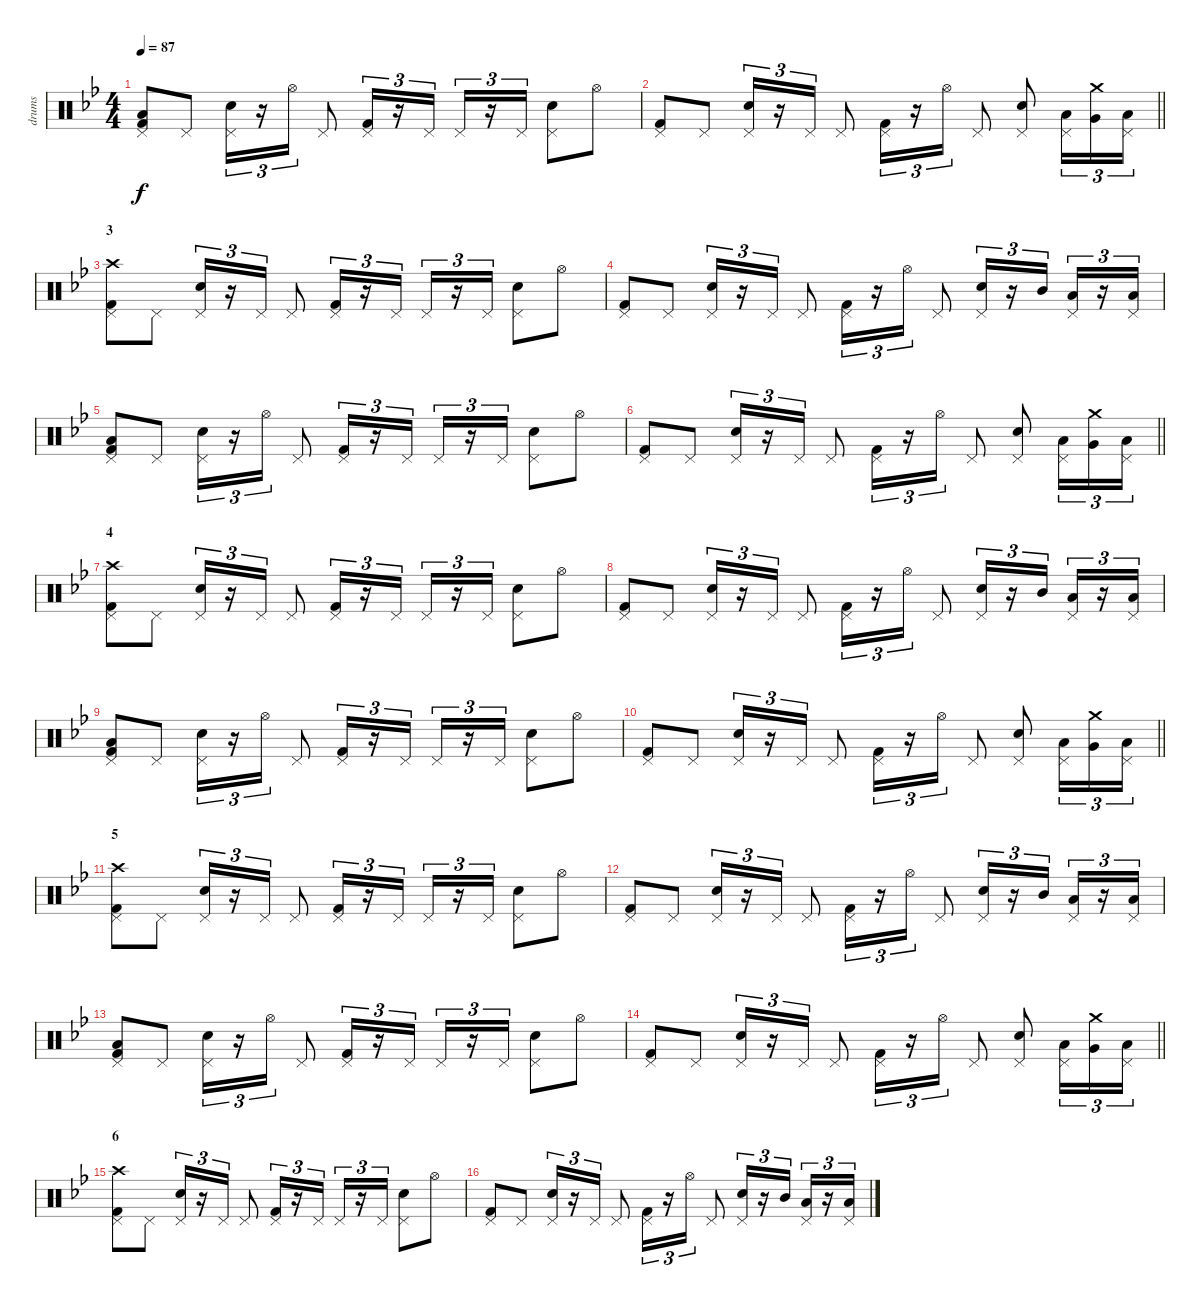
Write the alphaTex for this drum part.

\track ("drums" "drums") {instrument percussion}
\staff {score}
\articulation defaults
\ts (4 4)
\tempo 87
\clef neutral
\ks gminor
("Pedal Hi-Hat (hit)" "Low Floor Tom (hit)" "Kick (hit) 2").8{dy f} "Pedal Hi-Hat (hit)".8 ("Pedal Hi-Hat (hit)" "Electric Snare (hit)").16{tu (3 2)} r.16{tu (3 2)} "Hi-Hat (open)".16{tu (3 2)} "Pedal Hi-Hat (hit)".8 ("Pedal Hi-Hat (hit)" "Kick (hit) 2").16{tu (3 2)} r.16{tu (3 2)} "Pedal Hi-Hat (hit)".16{tu (3 2)} "Pedal Hi-Hat (hit)".16{tu (3 2)} r.16{tu (3 2)} "Pedal Hi-Hat (hit)".16{tu (3 2)} ("Pedal Hi-Hat (hit)" "Electric Snare (hit)").8 "Hi-Hat (open)".8 |
\barLineRight lightlight
("Pedal Hi-Hat (hit)" "Kick (hit) 2").8 "Pedal Hi-Hat (hit)".8 ("Pedal Hi-Hat (hit)" "Electric Snare (hit)").16{tu (3 2)} r.16{tu (3 2)} "Pedal Hi-Hat (hit)".16{tu (3 2)} "Pedal Hi-Hat (hit)".8 ("Pedal Hi-Hat (hit)" "Kick (hit) 2").16{tu (3 2)} r.16{tu (3 2)} "Hi-Hat (open)".16{tu (3 2)} "Pedal Hi-Hat (hit)".8 ("Pedal Hi-Hat (hit)" "Electric Snare (hit)").8 ("Pedal Hi-Hat (hit)" "Low Tom (hit)").16{tu (3 2)} ("Crash medium (hit)" "Very Low Tom (hit)").16{tu (3 2)} ("Pedal Hi-Hat (hit)" "Low Floor Tom (hit)").16{tu (3 2)} |
\section ("" "3")
("Crash high (hit)" "Pedal Hi-Hat (hit)" "Kick (hit) 2").8 "Pedal Hi-Hat (hit)".8 ("Pedal Hi-Hat (hit)" "Electric Snare (hit)").16{tu (3 2)} r.16{tu (3 2)} "Pedal Hi-Hat (hit)".16{tu (3 2)} "Pedal Hi-Hat (hit)".8 ("Pedal Hi-Hat (hit)" "Kick (hit) 2").16{tu (3 2)} r.16{tu (3 2)} "Pedal Hi-Hat (hit)".16{tu (3 2)} "Pedal Hi-Hat (hit)".16{tu (3 2)} r.16{tu (3 2)} "Pedal Hi-Hat (hit)".16{tu (3 2)} ("Pedal Hi-Hat (hit)" "Electric Snare (hit)").8 "Hi-Hat (open)".8 |
("Pedal Hi-Hat (hit)" "Kick (hit) 2").8 "Pedal Hi-Hat (hit)".8 ("Pedal Hi-Hat (hit)" "Electric Snare (hit)").16{tu (3 2)} r.16{tu (3 2)} "Pedal Hi-Hat (hit)".16{tu (3 2)} "Pedal Hi-Hat (hit)".8 ("Pedal Hi-Hat (hit)" "Kick (hit) 2").16{tu (3 2)} r.16{tu (3 2)} "Hi-Hat (open)".16{tu (3 2)} "Pedal Hi-Hat (hit)".8 ("Pedal Hi-Hat (hit)" "Electric Snare (hit)").16{tu (3 2)} r.16{tu (3 2)} "Mid Tom (hit)".16{tu (3 2)} ("Pedal Hi-Hat (hit)" "Low Tom (hit)").16{tu (3 2)} r.16{tu (3 2)} ("Pedal Hi-Hat (hit)" "Low Floor Tom (hit)").16{tu (3 2)} |
("Pedal Hi-Hat (hit)" "Low Floor Tom (hit)" "Kick (hit) 2").8 "Pedal Hi-Hat (hit)".8 ("Pedal Hi-Hat (hit)" "Electric Snare (hit)").16{tu (3 2)} r.16{tu (3 2)} "Hi-Hat (open)".16{tu (3 2)} "Pedal Hi-Hat (hit)".8 ("Pedal Hi-Hat (hit)" "Kick (hit) 2").16{tu (3 2)} r.16{tu (3 2)} "Pedal Hi-Hat (hit)".16{tu (3 2)} "Pedal Hi-Hat (hit)".16{tu (3 2)} r.16{tu (3 2)} "Pedal Hi-Hat (hit)".16{tu (3 2)} ("Pedal Hi-Hat (hit)" "Electric Snare (hit)").8 "Hi-Hat (open)".8 |
\barLineRight lightlight
("Pedal Hi-Hat (hit)" "Kick (hit) 2").8 "Pedal Hi-Hat (hit)".8 ("Pedal Hi-Hat (hit)" "Electric Snare (hit)").16{tu (3 2)} r.16{tu (3 2)} "Pedal Hi-Hat (hit)".16{tu (3 2)} "Pedal Hi-Hat (hit)".8 ("Pedal Hi-Hat (hit)" "Kick (hit) 2").16{tu (3 2)} r.16{tu (3 2)} "Hi-Hat (open)".16{tu (3 2)} "Pedal Hi-Hat (hit)".8 ("Pedal Hi-Hat (hit)" "Electric Snare (hit)").8 ("Pedal Hi-Hat (hit)" "Low Tom (hit)").16{tu (3 2)} ("Crash medium (hit)" "Very Low Tom (hit)").16{tu (3 2)} ("Pedal Hi-Hat (hit)" "Low Floor Tom (hit)").16{tu (3 2)} |
\section ("" "4")
("Crash high (hit)" "Pedal Hi-Hat (hit)" "Kick (hit) 2").8 "Pedal Hi-Hat (hit)".8 ("Pedal Hi-Hat (hit)" "Electric Snare (hit)").16{tu (3 2)} r.16{tu (3 2)} "Pedal Hi-Hat (hit)".16{tu (3 2)} "Pedal Hi-Hat (hit)".8 ("Pedal Hi-Hat (hit)" "Kick (hit) 2").16{tu (3 2)} r.16{tu (3 2)} "Pedal Hi-Hat (hit)".16{tu (3 2)} "Pedal Hi-Hat (hit)".16{tu (3 2)} r.16{tu (3 2)} "Pedal Hi-Hat (hit)".16{tu (3 2)} ("Pedal Hi-Hat (hit)" "Electric Snare (hit)").8 "Hi-Hat (open)".8 |
("Pedal Hi-Hat (hit)" "Kick (hit) 2").8 "Pedal Hi-Hat (hit)".8 ("Pedal Hi-Hat (hit)" "Electric Snare (hit)").16{tu (3 2)} r.16{tu (3 2)} "Pedal Hi-Hat (hit)".16{tu (3 2)} "Pedal Hi-Hat (hit)".8 ("Pedal Hi-Hat (hit)" "Kick (hit) 2").16{tu (3 2)} r.16{tu (3 2)} "Hi-Hat (open)".16{tu (3 2)} "Pedal Hi-Hat (hit)".8 ("Pedal Hi-Hat (hit)" "Electric Snare (hit)").16{tu (3 2)} r.16{tu (3 2)} "Mid Tom (hit)".16{tu (3 2)} ("Pedal Hi-Hat (hit)" "Low Tom (hit)").16{tu (3 2)} r.16{tu (3 2)} ("Pedal Hi-Hat (hit)" "Low Floor Tom (hit)").16{tu (3 2)} |
("Pedal Hi-Hat (hit)" "Low Floor Tom (hit)" "Kick (hit) 2").8 "Pedal Hi-Hat (hit)".8 ("Pedal Hi-Hat (hit)" "Electric Snare (hit)").16{tu (3 2)} r.16{tu (3 2)} "Hi-Hat (open)".16{tu (3 2)} "Pedal Hi-Hat (hit)".8 ("Pedal Hi-Hat (hit)" "Kick (hit) 2").16{tu (3 2)} r.16{tu (3 2)} "Pedal Hi-Hat (hit)".16{tu (3 2)} "Pedal Hi-Hat (hit)".16{tu (3 2)} r.16{tu (3 2)} "Pedal Hi-Hat (hit)".16{tu (3 2)} ("Pedal Hi-Hat (hit)" "Electric Snare (hit)").8 "Hi-Hat (open)".8 |
\barLineRight lightlight
("Pedal Hi-Hat (hit)" "Kick (hit) 2").8 "Pedal Hi-Hat (hit)".8 ("Pedal Hi-Hat (hit)" "Electric Snare (hit)").16{tu (3 2)} r.16{tu (3 2)} "Pedal Hi-Hat (hit)".16{tu (3 2)} "Pedal Hi-Hat (hit)".8 ("Pedal Hi-Hat (hit)" "Kick (hit) 2").16{tu (3 2)} r.16{tu (3 2)} "Hi-Hat (open)".16{tu (3 2)} "Pedal Hi-Hat (hit)".8 ("Pedal Hi-Hat (hit)" "Electric Snare (hit)").8 ("Pedal Hi-Hat (hit)" "Low Tom (hit)").16{tu (3 2)} ("Crash medium (hit)" "Very Low Tom (hit)").16{tu (3 2)} ("Pedal Hi-Hat (hit)" "Low Floor Tom (hit)").16{tu (3 2)} |
\section ("" "5")
("Crash high (hit)" "Pedal Hi-Hat (hit)" "Kick (hit) 2").8 "Pedal Hi-Hat (hit)".8 ("Pedal Hi-Hat (hit)" "Electric Snare (hit)").16{tu (3 2)} r.16{tu (3 2)} "Pedal Hi-Hat (hit)".16{tu (3 2)} "Pedal Hi-Hat (hit)".8 ("Pedal Hi-Hat (hit)" "Kick (hit) 2").16{tu (3 2)} r.16{tu (3 2)} "Pedal Hi-Hat (hit)".16{tu (3 2)} "Pedal Hi-Hat (hit)".16{tu (3 2)} r.16{tu (3 2)} "Pedal Hi-Hat (hit)".16{tu (3 2)} ("Pedal Hi-Hat (hit)" "Electric Snare (hit)").8 "Hi-Hat (open)".8 |
("Pedal Hi-Hat (hit)" "Kick (hit) 2").8 "Pedal Hi-Hat (hit)".8 ("Pedal Hi-Hat (hit)" "Electric Snare (hit)").16{tu (3 2)} r.16{tu (3 2)} "Pedal Hi-Hat (hit)".16{tu (3 2)} "Pedal Hi-Hat (hit)".8 ("Pedal Hi-Hat (hit)" "Kick (hit) 2").16{tu (3 2)} r.16{tu (3 2)} "Hi-Hat (open)".16{tu (3 2)} "Pedal Hi-Hat (hit)".8 ("Pedal Hi-Hat (hit)" "Electric Snare (hit)").16{tu (3 2)} r.16{tu (3 2)} "Mid Tom (hit)".16{tu (3 2)} ("Pedal Hi-Hat (hit)" "Low Tom (hit)").16{tu (3 2)} r.16{tu (3 2)} ("Pedal Hi-Hat (hit)" "Low Floor Tom (hit)").16{tu (3 2)} |
("Pedal Hi-Hat (hit)" "Low Floor Tom (hit)" "Kick (hit) 2").8 "Pedal Hi-Hat (hit)".8 ("Pedal Hi-Hat (hit)" "Electric Snare (hit)").16{tu (3 2)} r.16{tu (3 2)} "Hi-Hat (open)".16{tu (3 2)} "Pedal Hi-Hat (hit)".8 ("Pedal Hi-Hat (hit)" "Kick (hit) 2").16{tu (3 2)} r.16{tu (3 2)} "Pedal Hi-Hat (hit)".16{tu (3 2)} "Pedal Hi-Hat (hit)".16{tu (3 2)} r.16{tu (3 2)} "Pedal Hi-Hat (hit)".16{tu (3 2)} ("Pedal Hi-Hat (hit)" "Electric Snare (hit)").8 "Hi-Hat (open)".8 |
\barLineRight lightlight
("Pedal Hi-Hat (hit)" "Kick (hit) 2").8 "Pedal Hi-Hat (hit)".8 ("Pedal Hi-Hat (hit)" "Electric Snare (hit)").16{tu (3 2)} r.16{tu (3 2)} "Pedal Hi-Hat (hit)".16{tu (3 2)} "Pedal Hi-Hat (hit)".8 ("Pedal Hi-Hat (hit)" "Kick (hit) 2").16{tu (3 2)} r.16{tu (3 2)} "Hi-Hat (open)".16{tu (3 2)} "Pedal Hi-Hat (hit)".8 ("Pedal Hi-Hat (hit)" "Electric Snare (hit)").8 ("Pedal Hi-Hat (hit)" "Low Tom (hit)").16{tu (3 2)} ("Crash medium (hit)" "Very Low Tom (hit)").16{tu (3 2)} ("Pedal Hi-Hat (hit)" "Low Floor Tom (hit)").16{tu (3 2)} |
\section ("" "6")
("Crash high (hit)" "Pedal Hi-Hat (hit)" "Kick (hit) 2").8 "Pedal Hi-Hat (hit)".8 ("Pedal Hi-Hat (hit)" "Electric Snare (hit)").16{tu (3 2)} r.16{tu (3 2)} "Pedal Hi-Hat (hit)".16{tu (3 2)} "Pedal Hi-Hat (hit)".8 ("Pedal Hi-Hat (hit)" "Kick (hit) 2").16{tu (3 2)} r.16{tu (3 2)} "Pedal Hi-Hat (hit)".16{tu (3 2)} "Pedal Hi-Hat (hit)".16{tu (3 2)} r.16{tu (3 2)} "Pedal Hi-Hat (hit)".16{tu (3 2)} ("Pedal Hi-Hat (hit)" "Electric Snare (hit)").8 "Hi-Hat (open)".8 |
("Pedal Hi-Hat (hit)" "Kick (hit) 2").8 "Pedal Hi-Hat (hit)".8 ("Pedal Hi-Hat (hit)" "Electric Snare (hit)").16{tu (3 2)} r.16{tu (3 2)} "Pedal Hi-Hat (hit)".16{tu (3 2)} "Pedal Hi-Hat (hit)".8 ("Pedal Hi-Hat (hit)" "Kick (hit) 2").16{tu (3 2)} r.16{tu (3 2)} "Hi-Hat (open)".16{tu (3 2)} "Pedal Hi-Hat (hit)".8 ("Pedal Hi-Hat (hit)" "Electric Snare (hit)").16{tu (3 2)} r.16{tu (3 2)} "Mid Tom (hit)".16{tu (3 2)} ("Pedal Hi-Hat (hit)" "Low Tom (hit)").16{tu (3 2)} r.16{tu (3 2)} ("Pedal Hi-Hat (hit)" "Low Floor Tom (hit)").16{tu (3 2)}
